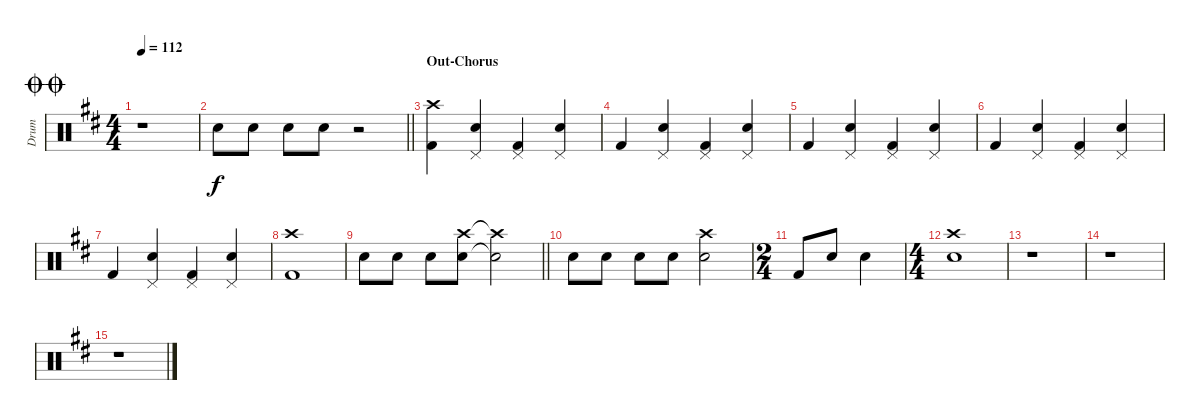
\track ("Drum" "Drum") {instrument percussion}
\staff {score}
\articulation defaults
\ts (4 4)
\jump doublecoda
\tempo 112
\clef neutral
\ks d
r.1{dy f} |
\barLineRight lightlight "Electric Snare (hit)".8 "Electric Snare (hit)".8 "Electric Snare (hit)".8 "Electric Snare (hit)".8
r.2 |
\section ("" "Out-Chorus")
("Kick (hit) 2" "Crash high (hit)").4 ("Pedal Hi-Hat (hit)" "Snare (hit) 2").4 ("Pedal Hi-Hat (hit)" "Kick (hit) 2").4 ("Pedal Hi-Hat (hit)" "Snare (hit) 2").4 |
"Kick (hit) 2".4 ("Pedal Hi-Hat (hit)" "Snare (hit) 2").4 ("Pedal Hi-Hat (hit)" "Kick (hit) 2").4 ("Pedal Hi-Hat (hit)" "Snare (hit) 2").4 |
"Kick (hit) 2".4 ("Pedal Hi-Hat (hit)" "Snare (hit) 2").4 ("Pedal Hi-Hat (hit)" "Kick (hit) 2").4 ("Pedal Hi-Hat (hit)" "Snare (hit) 2").4 |
"Kick (hit) 2".4 ("Pedal Hi-Hat (hit)" "Snare (hit) 2").4 ("Pedal Hi-Hat (hit)" "Kick (hit) 2").4 ("Pedal Hi-Hat (hit)" "Snare (hit) 2").4 |
"Kick (hit) 2".4 ("Pedal Hi-Hat (hit)" "Snare (hit) 2").4 ("Pedal Hi-Hat (hit)" "Kick (hit) 2").4 ("Pedal Hi-Hat (hit)" "Snare (hit) 2").4 |
("Crash high (hit)" "Kick (hit) 2").1 |
\barLineRight lightlight "Electric Snare (hit)".8 "Electric Snare (hit)".8 "Electric Snare (hit)".8
("Crash high (hit)" "Electric Snare (hit)").8 ("Crash high (hit)"{t} "Electric Snare (hit)"{t}).2 |
"Electric Snare (hit)".8 "Electric Snare (hit)".8 "Electric Snare (hit)".8 "Electric Snare (hit)".8 ("Crash high (hit)" "Electric Snare (hit)").2 |
\ts (2 4)
"Kick (hit) 2".8 "Electric Snare (hit)".8 "Electric Snare (hit)".4 |
\ts (4 4)
("Crash high (hit)" "Electric Snare (hit)").1 |
r.1 |
r.1 |
r.1
